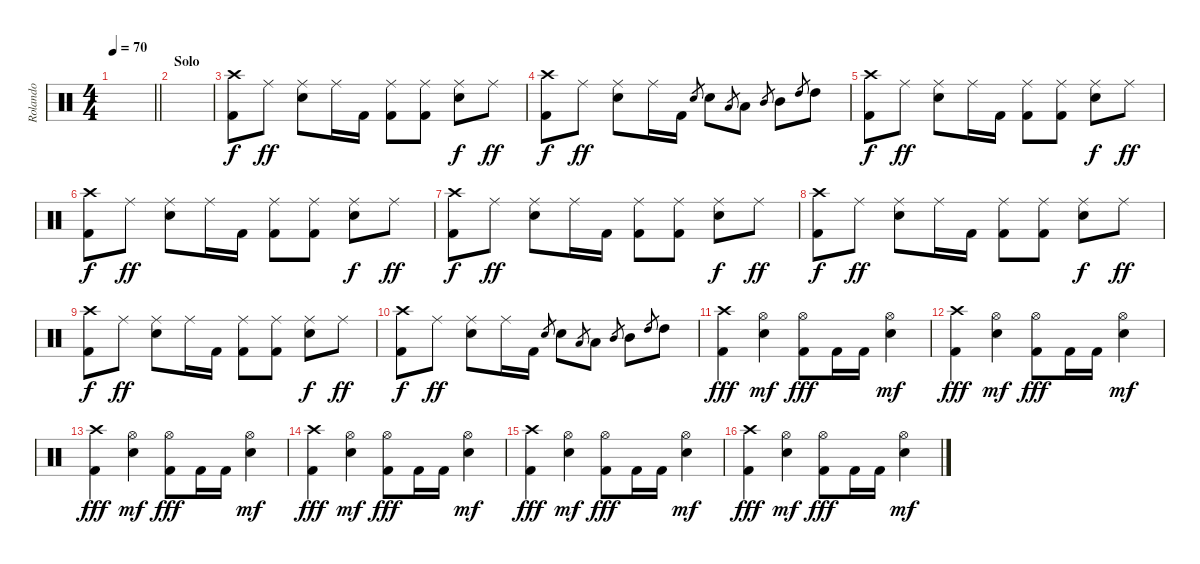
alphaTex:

\track ("Rolando" "Rolando") {instrument percussion}
\staff {score}
\articulation defaults
\ts (4 4)
\tempo 70
\clef neutral
\barLineRight lightlight
\ks c
|
\section ("" "Solo")
|
("Kick (hit) 2" "Crash high (hit)").8{dy f} "Ride (middle)".8{dy ff} ("Snare (hit) 2" "Ride (middle)").8 "Ride (middle)".16 "Kick (hit) 2".16 ("Ride (middle)" "Kick (hit) 2").8 ("Ride (middle)" "Kick (hit) 2").8 ("Snare (hit) 2" "Ride (middle)").8{dy f} "Ride (middle)".8{dy ff} |
("Kick (hit) 2" "Crash high (hit)").8{dy f} "Ride (middle)".8{dy ff} ("Snare (hit) 2" "Ride (middle)").8 "Ride (middle)".16 "Kick (hit) 2".16 "Snare (hit) 2".8{gr} "Snare (hit) 2".8 "Low Tom (hit)".8{gr} "Low Tom (hit)".8 "Mid Tom (hit)".8{gr} "Mid Tom (hit)".8 "High Tom (hit)".8{gr} "High Tom (hit)".8 |
("Kick (hit) 2" "Crash high (hit)").8{dy f} "Ride (middle)".8{dy ff} ("Snare (hit) 2" "Ride (middle)").8 "Ride (middle)".16 "Kick (hit) 2".16 ("Ride (middle)" "Kick (hit) 2").8 ("Ride (middle)" "Kick (hit) 2").8 ("Snare (hit) 2" "Ride (middle)").8{dy f} "Ride (middle)".8{dy ff} |
("Kick (hit) 2" "Crash high (hit)").8{dy f} "Ride (middle)".8{dy ff} ("Snare (hit) 2" "Ride (middle)").8 "Ride (middle)".16 "Kick (hit) 2".16 ("Ride (middle)" "Kick (hit) 2").8 ("Ride (middle)" "Kick (hit) 2").8 ("Snare (hit) 2" "Ride (middle)").8{dy f} "Ride (middle)".8{dy ff} |
("Kick (hit) 2" "Crash high (hit)").8{dy f} "Ride (middle)".8{dy ff} ("Snare (hit) 2" "Ride (middle)").8 "Ride (middle)".16 "Kick (hit) 2".16 ("Ride (middle)" "Kick (hit) 2").8 ("Ride (middle)" "Kick (hit) 2").8 ("Snare (hit) 2" "Ride (middle)").8{dy f} "Ride (middle)".8{dy ff} |
("Kick (hit) 2" "Crash high (hit)").8{dy f} "Ride (middle)".8{dy ff} ("Snare (hit) 2" "Ride (middle)").8 "Ride (middle)".16 "Kick (hit) 2".16 ("Ride (middle)" "Kick (hit) 2").8 ("Ride (middle)" "Kick (hit) 2").8 ("Snare (hit) 2" "Ride (middle)").8{dy f} "Ride (middle)".8{dy ff} |
("Kick (hit) 2" "Crash high (hit)").8{dy f} "Ride (middle)".8{dy ff} ("Snare (hit) 2" "Ride (middle)").8 "Ride (middle)".16 "Kick (hit) 2".16 ("Ride (middle)" "Kick (hit) 2").8 ("Ride (middle)" "Kick (hit) 2").8 ("Snare (hit) 2" "Ride (middle)").8{dy f} "Ride (middle)".8{dy ff} |
("Kick (hit) 2" "Crash high (hit)").8{dy f} "Ride (middle)".8{dy ff} ("Snare (hit) 2" "Ride (middle)").8 "Ride (middle)".16 "Kick (hit) 2".16 "Snare (hit) 2".8{gr} "Snare (hit) 2".8 "Low Tom (hit)".8{gr} "Low Tom (hit)".8 "Mid Tom (hit)".8{gr} "Mid Tom (hit)".8 "High Tom (hit)".8{gr} "High Tom (hit)".8 |
("Crash high (hit)" "Kick (hit) 2").4{dy fff volume 9} ("Snare (hit) 2" "Hi-Hat (open)").4{dy mf} ("Hi-Hat (open)" "Kick (hit) 2").8{dy fff} "Kick (hit) 2".16 "Kick (hit) 2".16 ("Snare (hit) 2" "Hi-Hat (open)").4{dy mf} |
("Crash high (hit)" "Kick (hit) 2").4{dy fff} ("Snare (hit) 2" "Hi-Hat (open)").4{dy mf} ("Hi-Hat (open)" "Kick (hit) 2").8{dy fff} "Kick (hit) 2".16 "Kick (hit) 2".16 ("Snare (hit) 2" "Hi-Hat (open)").4{dy mf} |
("Crash high (hit)" "Kick (hit) 2").4{dy fff} ("Snare (hit) 2" "Hi-Hat (open)").4{dy mf} ("Hi-Hat (open)" "Kick (hit) 2").8{dy fff} "Kick (hit) 2".16 "Kick (hit) 2".16 ("Snare (hit) 2" "Hi-Hat (open)").4{dy mf} |
("Crash high (hit)" "Kick (hit) 2").4{dy fff} ("Snare (hit) 2" "Hi-Hat (open)").4{dy mf} ("Hi-Hat (open)" "Kick (hit) 2").8{dy fff} "Kick (hit) 2".16 "Kick (hit) 2".16 ("Snare (hit) 2" "Hi-Hat (open)").4{dy mf} |
("Crash high (hit)" "Kick (hit) 2").4{dy fff} ("Snare (hit) 2" "Hi-Hat (open)").4{dy mf} ("Hi-Hat (open)" "Kick (hit) 2").8{dy fff} "Kick (hit) 2".16 "Kick (hit) 2".16 ("Snare (hit) 2" "Hi-Hat (open)").4{dy mf} |
("Crash high (hit)" "Kick (hit) 2").4{dy fff} ("Snare (hit) 2" "Hi-Hat (open)").4{dy mf} ("Hi-Hat (open)" "Kick (hit) 2").8{dy fff} "Kick (hit) 2".16 "Kick (hit) 2".16 ("Snare (hit) 2" "Hi-Hat (open)").4{dy mf}
